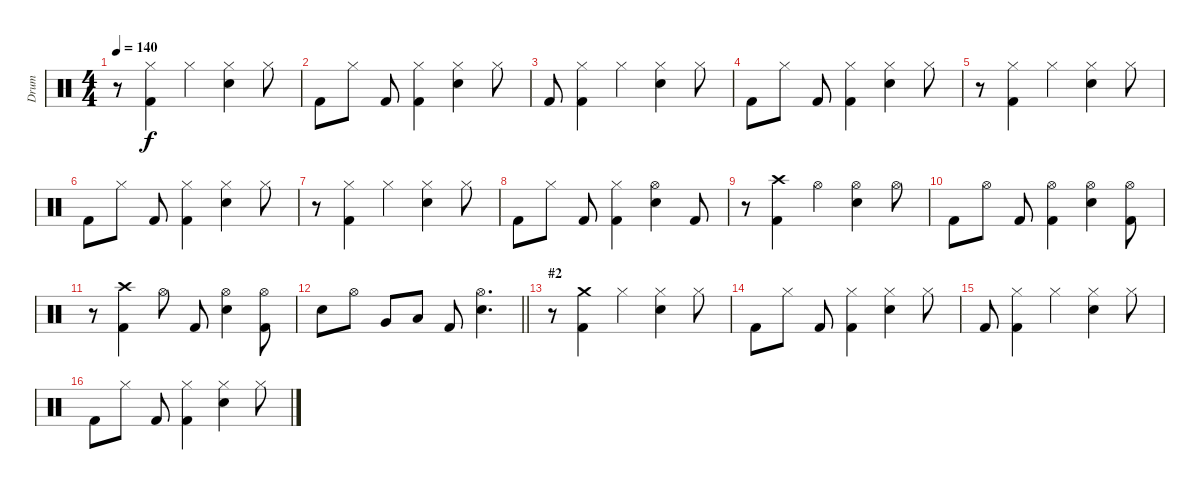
\track ("Drum" "Drum") {instrument percussion}
\staff {score}
\articulation defaults
\ts (4 4)
\tempo 140
\clef neutral
\ks c
r.8{dy f} ("Hi-Hat (closed)" "Kick (hit) 2").4 "Hi-Hat (closed)".4 ("Electric Snare (hit)" "Hi-Hat (closed)").4 "Hi-Hat (closed)".8 |
"Kick (hit) 2".8 "Hi-Hat (closed)".8 "Kick (hit) 2".8 ("Hi-Hat (closed)" "Kick (hit) 2").4 ("Hi-Hat (closed)" "Electric Snare (hit)").4 "Hi-Hat (closed)".8 |
"Kick (hit) 2".8 ("Hi-Hat (closed)" "Kick (hit) 2").4 "Hi-Hat (closed)".4 ("Electric Snare (hit)" "Hi-Hat (closed)").4 "Hi-Hat (closed)".8 |
"Kick (hit) 2".8 "Hi-Hat (closed)".8 "Kick (hit) 2".8 ("Hi-Hat (closed)" "Kick (hit) 2").4 ("Hi-Hat (closed)" "Electric Snare (hit)").4 "Hi-Hat (closed)".8 |
r.8 ("Hi-Hat (closed)" "Kick (hit) 2").4 "Hi-Hat (closed)".4 ("Electric Snare (hit)" "Hi-Hat (closed)").4 "Hi-Hat (closed)".8 |
"Kick (hit) 2".8 "Hi-Hat (closed)".8 "Kick (hit) 2".8 ("Hi-Hat (closed)" "Kick (hit) 2").4 ("Hi-Hat (closed)" "Electric Snare (hit)").4 "Hi-Hat (closed)".8 |
r.8 ("Hi-Hat (closed)" "Kick (hit) 2").4 "Hi-Hat (closed)".4 ("Electric Snare (hit)" "Hi-Hat (closed)").4 "Hi-Hat (closed)".8 |
"Kick (hit) 2".8 "Hi-Hat (closed)".8 "Kick (hit) 2".8 ("Hi-Hat (closed)" "Kick (hit) 2").4 ("Hi-Hat (open)" "Electric Snare (hit)").4 "Kick (hit) 2".8 |
r.8 ("Kick (hit) 2" "Crash high (hit)").4 "Hi-Hat (open)".4 ("Hi-Hat (open)" "Electric Snare (hit)").4 "Hi-Hat (open)".8 |
"Kick (hit) 2".8 "Hi-Hat (open)".8 "Kick (hit) 2".8 ("Hi-Hat (open)" "Kick (hit) 2").4 ("Electric Snare (hit)" "Hi-Hat (open)").4 ("Hi-Hat (open)" "Kick (hit) 2").8 |
r.8 ("Kick (hit) 2" "Crash high (hit)").4 "Hi-Hat (open)".8 "Kick (hit) 2".8 ("Hi-Hat (open)" "Electric Snare (hit)").4 ("Hi-Hat (open)" "Kick (hit) 2").8 |
\barLineRight lightlight "Electric Snare (hit)".8 "Hi-Hat (open)".8 "Very Low Tom (hit)".8 "Low Floor Tom (hit)".8 "Kick (hit) 2".8
("Hi-Hat (open)" "Electric Snare (hit)").4{d} |
\section ("" "#2")
r.8 ("Kick (hit) 2" "Crash medium (hit)").4 "Hi-Hat (closed)".4 ("Hi-Hat (closed)" "Electric Snare (hit)").4 "Hi-Hat (closed)".8 |
"Kick (hit) 2".8 "Hi-Hat (closed)".8 "Kick (hit) 2".8 ("Hi-Hat (closed)" "Kick (hit) 2").4 ("Hi-Hat (closed)" "Electric Snare (hit)").4 "Hi-Hat (closed)".8 |
"Kick (hit) 2".8 ("Hi-Hat (closed)" "Kick (hit) 2").4 "Hi-Hat (closed)".4 ("Electric Snare (hit)" "Hi-Hat (closed)").4 "Hi-Hat (closed)".8 |
"Kick (hit) 2".8 "Hi-Hat (closed)".8 "Kick (hit) 2".8 ("Hi-Hat (closed)" "Kick (hit) 2").4 ("Hi-Hat (closed)" "Electric Snare (hit)").4 "Hi-Hat (closed)".8
